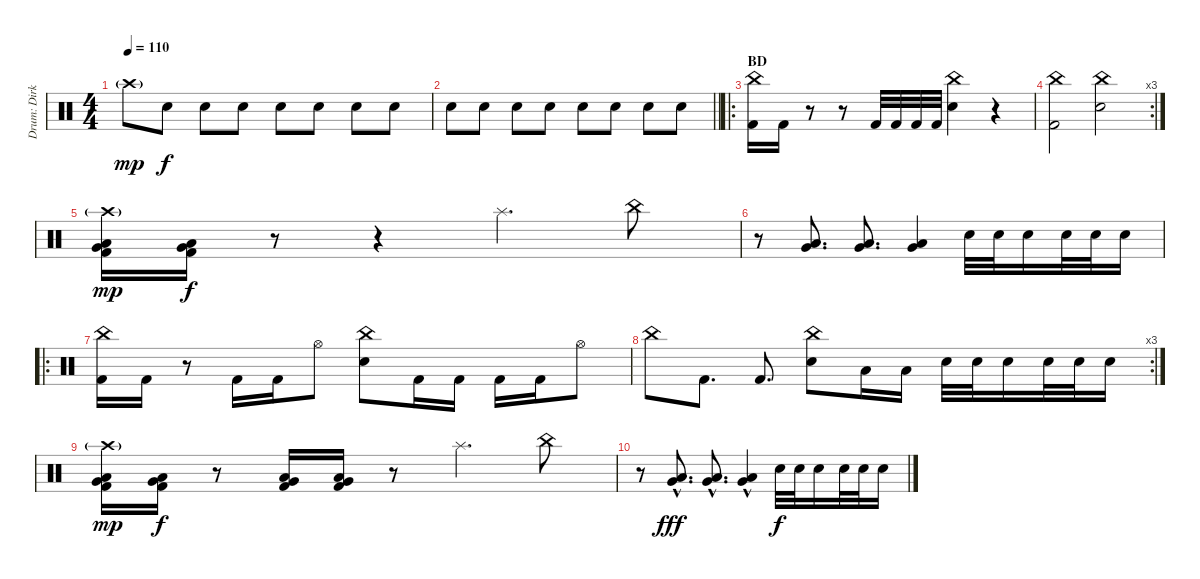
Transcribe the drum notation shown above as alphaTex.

\track ("Drum: Dirk" "Drum: Dirk") {instrument percussion}
\staff {score}
\articulation defaults
\ts (4 4)
\tempo 110
\clef neutral
\ks c "Crash high (hit)"{g}.8{dy mp} "Electric Snare (hit)".8{dy f} "Electric Snare (hit)".8 "Electric Snare (hit)".8 "Electric Snare (hit)".8 "Electric Snare (hit)".8 "Electric Snare (hit)".8 "Electric Snare (hit)".8
|
\barLineRight lightlight "Electric Snare (hit)".8 "Electric Snare (hit)".8 "Electric Snare (hit)".8 "Electric Snare (hit)".8 "Electric Snare (hit)".8 "Electric Snare (hit)".8 "Electric Snare (hit)".8 "Electric Snare (hit)".8
|
\ro
\section ("" "BD")
("China (hit)" "Kick (hit) 2").16 "Kick (hit) 2".16 r.8 r.8 "Kick (hit) 2".32 "Kick (hit) 2".32 "Kick (hit) 2".32 "Kick (hit) 2".32 ("China (hit)" "Electric Snare (hit)").4 r.4 |
\rc 3
("China (hit)" "Kick (hit) 2").2 ("China (hit)" "Electric Snare (hit)").2 |
("Crash high (hit)"{g} "Low Tom (hit)" "Very Low Tom (hit)" "Kick (hit) 2").16{dy mp} ("Low Tom (hit)" "Very Low Tom (hit)" "Kick (hit) 2").16{dy f} r.8 r.4 "Splash (hit)".4{d} "China (hit)".8 |
r.8 ("Low Tom (hit)" "Very Low Tom (hit)").8{d} ("Low Tom (hit)" "Very Low Tom (hit)").8{d} ("Low Tom (hit)" "Very Low Tom (hit)").4 "Electric Snare (hit)".32 "Electric Snare (hit)".32 "Electric Snare (hit)".16 "Electric Snare (hit)".32 "Electric Snare (hit)".32 "Electric Snare (hit)".16 |
\ro
("China (hit)" "Kick (hit) 2").16 "Kick (hit) 2".16 r.8 "Kick (hit) 2".16 "Kick (hit) 2".16 "Hi-Hat (open)".8 ("China (hit)" "Electric Snare (hit)").8 "Kick (hit) 2".16 "Kick (hit) 2".16 "Kick (hit) 2".16 "Kick (hit) 2".16 "Hi-Hat (open)".8 |
\rc 3 "China (hit)".8 "Kick (hit) 2".8{d} "Kick (hit) 2".8{d}
("China (hit)" "Electric Snare (hit)").8 "Low Tom (hit)".16 "Low Tom (hit)".16 "Electric Snare (hit)".32 "Electric Snare (hit)".32 "Electric Snare (hit)".16 "Electric Snare (hit)".32 "Electric Snare (hit)".32 "Electric Snare (hit)".16 |
("Crash high (hit)"{g} "Low Tom (hit)" "Very Low Tom (hit)" "Kick (hit) 2").16{dy mp} ("Low Tom (hit)" "Very Low Tom (hit)" "Kick (hit) 2").16{dy f} r.8 ("Low Tom (hit)" "Very Low Tom (hit)" "Kick (hit) 2").16 ("Low Tom (hit)" "Very Low Tom (hit)" "Kick (hit) 2").16 r.8 "Splash (hit)".4{d} "China (hit)".8 |
r.8 ("Low Tom (hit)"{hac} "Very Low Tom (hit)"{hac}).8{d dy fff} ("Low Tom (hit)"{hac} "Very Low Tom (hit)"{hac}).8{d} ("Low Tom (hit)"{hac} "Very Low Tom (hit)"{hac}).4 "Electric Snare (hit)".32{dy f} "Electric Snare (hit)".32 "Electric Snare (hit)".16 "Electric Snare (hit)".32 "Electric Snare (hit)".32 "Electric Snare (hit)".16
